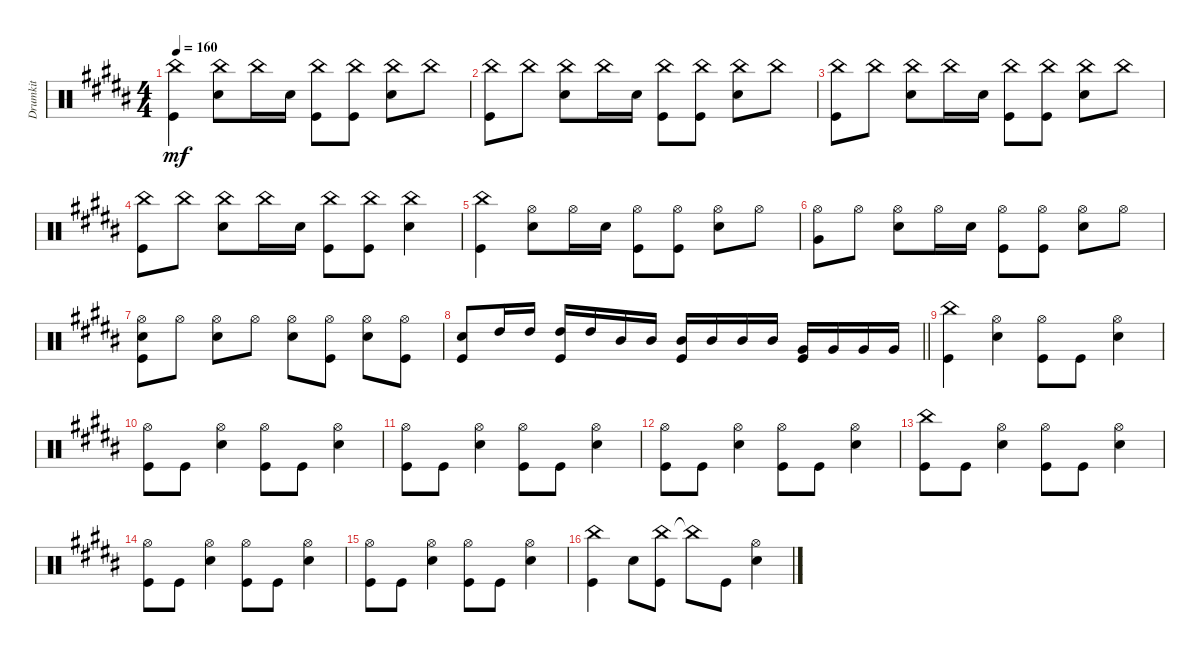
\track ("Drumkit" "Drumkit") {instrument percussion}
\staff {score}
\articulation defaults
\ts (4 4)
\tempo 160
\clef neutral
\ks b
("Kick (hit)" "China (hit)").4{dy mf} ("China (hit)" "Snare (hit) 2").8 "China (hit)".16 "Snare (hit) 2".16 ("China (hit)" "Kick (hit)").8 ("China (hit)" "Kick (hit)").8 ("China (hit)" "Snare (hit) 2").8 "China (hit)".8 |
("China (hit)" "Kick (hit)").8 "China (hit)".8 ("China (hit)" "Snare (hit) 2").8 "China (hit)".16 "Snare (hit) 2".16 ("China (hit)" "Kick (hit)").8 ("China (hit)" "Kick (hit)").8 ("China (hit)" "Snare (hit) 2").8 "China (hit)".8 |
("China (hit)" "Kick (hit)").8 "China (hit)".8 ("China (hit)" "Snare (hit) 2").8 "China (hit)".16 "Snare (hit) 2".16 ("China (hit)" "Kick (hit)").8 ("China (hit)" "Kick (hit)").8 ("China (hit)" "Snare (hit) 2").8 "China (hit)".8 |
("Kick (hit)" "China (hit)").8 "China (hit)".8 ("China (hit)" "Snare (hit) 2").8 "China (hit)".16 "Snare (hit) 2".16 ("China (hit)" "Kick (hit)").8 ("China (hit)" "Kick (hit)").8 ("Snare (hit) 2" "China (hit)").4 |
("China (hit)" "Kick (hit)").4 ("Snare (hit) 2" "Hi-Hat (open)").8 "Hi-Hat (open)".16 "Snare (hit) 2".16 ("Hi-Hat (open)" "Kick (hit)").8 ("Hi-Hat (open)" "Kick (hit)").8 ("Hi-Hat (open)" "Snare (hit) 2").8 "Hi-Hat (open)".8 |
("Hi-Hat (open)" "Very Low Tom (hit)").8 "Hi-Hat (open)".8 ("Hi-Hat (open)" "Snare (hit) 2").8 "Hi-Hat (open)".16 "Snare (hit) 2".16 ("Hi-Hat (open)" "Kick (hit)").8 ("Kick (hit)" "Hi-Hat (open)").8 ("Hi-Hat (open)" "Snare (hit) 2").8 "Hi-Hat (open)".8 |
("Hi-Hat (open)" "Snare (hit) 2" "Kick (hit)").8 "Hi-Hat (open)".8 ("Hi-Hat (open)" "Snare (hit) 2").8 "Hi-Hat (open)".8 ("Hi-Hat (open)" "Snare (hit) 2").8 ("Hi-Hat (open)" "Kick (hit)").8 ("Hi-Hat (open)" "Snare (hit) 2").8 ("Hi-Hat (open)" "Kick (hit)").8 |
\barLineRight lightlight
("Snare (hit) 2" "Kick (hit)").8 "High Tom (hit)".16 "High Tom (hit)".16 ("High Tom (hit)" "Kick (hit)").16 "High Tom (hit)".16 "Mid Tom (hit)".16 "Mid Tom (hit)".16 ("Mid Tom (hit)" "Kick (hit)").16 "Mid Tom (hit)".16 "Mid Tom (hit)".16 "Mid Tom (hit)".16 ("Kick (hit)" "Very Low Tom (hit)").16 "Very Low Tom (hit)".16 "Very Low Tom (hit)".16 "Very Low Tom (hit)".16 |
\section ("" "")
("Kick (hit)" "China (hit)").4 ("Hi-Hat (open)" "Snare (hit) 2").4 ("Hi-Hat (open)" "Kick (hit)").8 "Kick (hit)".8 ("Hi-Hat (open)" "Snare (hit) 2").4 |
("Hi-Hat (open)" "Kick (hit)").8 "Kick (hit)".8 ("Snare (hit) 2" "Hi-Hat (open)").4 ("Hi-Hat (open)" "Kick (hit)").8 "Kick (hit)".8 ("Snare (hit) 2" "Hi-Hat (open)").4 |
("Hi-Hat (open)" "Kick (hit)").8 "Kick (hit)".8 ("Snare (hit) 2" "Hi-Hat (open)").4 ("Hi-Hat (open)" "Kick (hit)").8 "Kick (hit)".8 ("Snare (hit) 2" "Hi-Hat (open)").4 |
("Hi-Hat (open)" "Kick (hit)").8 "Kick (hit)".8 ("Snare (hit) 2" "Hi-Hat (open)").4 ("Hi-Hat (open)" "Kick (hit)").8 "Kick (hit)".8 ("Snare (hit) 2" "Hi-Hat (open)").4 |
("Kick (hit)" "China (hit)").8 "Kick (hit)".8 ("Snare (hit) 2" "Hi-Hat (open)").4 ("Hi-Hat (open)" "Kick (hit)").8 "Kick (hit)".8 ("Snare (hit) 2" "Hi-Hat (open)").4 |
("Hi-Hat (open)" "Kick (hit)").8 "Kick (hit)".8 ("Snare (hit) 2" "Hi-Hat (open)").4 ("Hi-Hat (open)" "Kick (hit)").8 "Kick (hit)".8 ("Snare (hit) 2" "Hi-Hat (open)").4 |
("Hi-Hat (open)" "Kick (hit)").8 "Kick (hit)".8 ("Snare (hit) 2" "Hi-Hat (open)").4 ("Hi-Hat (open)" "Kick (hit)").8 "Kick (hit)".8 ("Snare (hit) 2" "Hi-Hat (open)").4 |
("China (hit)" "Kick (hit)").4 "Snare (hit) 2".8 ("China (hit)" "Kick (hit)").8 "China (hit)"{t}.8 "Kick (hit)".8 ("Snare (hit) 2" "Hi-Hat (open)").4
